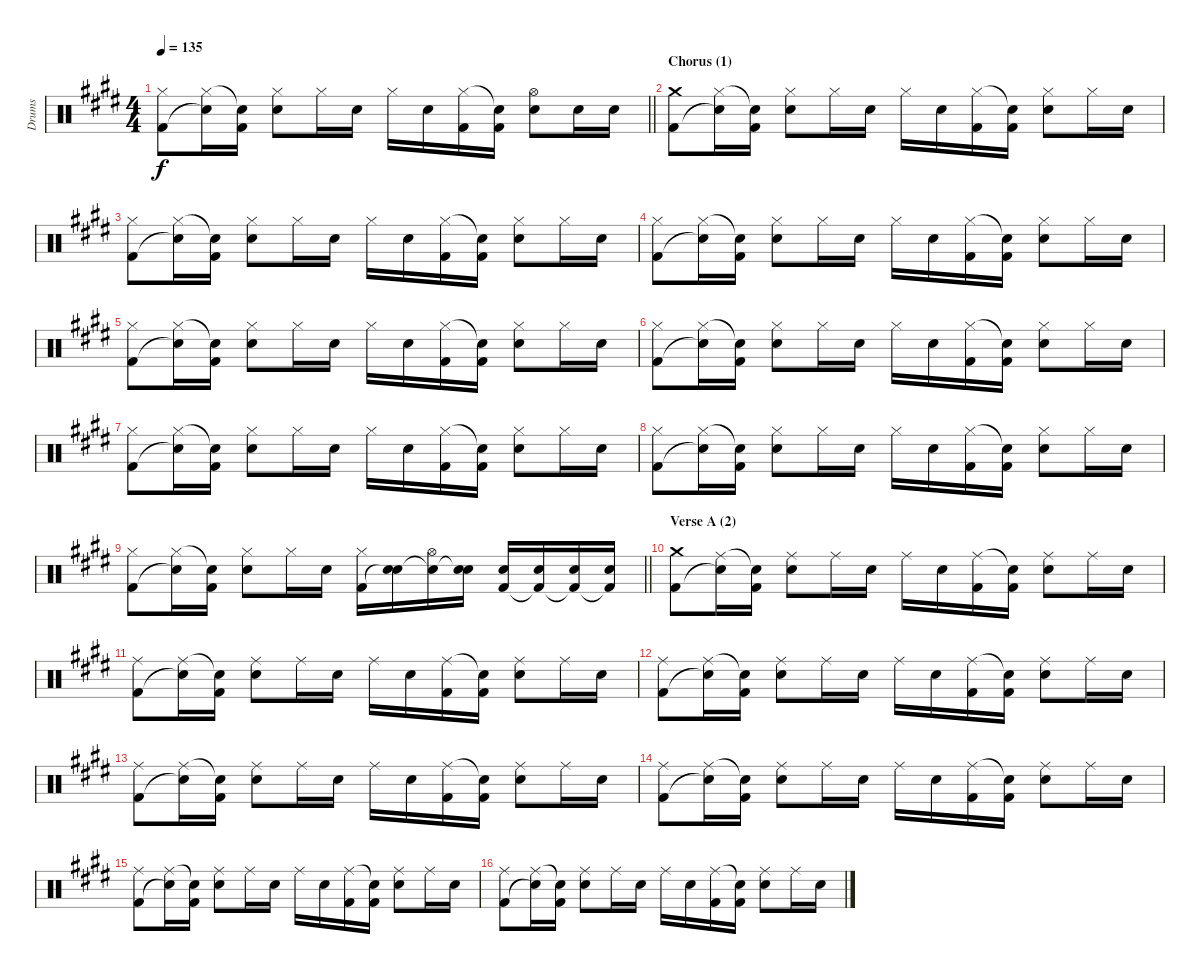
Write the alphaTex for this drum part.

\track ("Drums" "Drums") {instrument percussion}
\staff {score}
\articulation defaults
\ts (4 4)
\tempo 135
\clef neutral
\barLineRight lightlight
\ks c#minor
("Hi-Hat (closed)" "Kick (hit) 2").8{dy f} ("Hi-Hat (closed)" "Snare (hit)"{t}).16 ("Snare (hit)"{t} "Kick (hit) 2").16 ("Hi-Hat (closed)" "Electric Snare (hit)").8 "Hi-Hat (closed)".16 "Electric Snare (hit)".16 "Hi-Hat (closed)".16 "Electric Snare (hit)".16 ("Hi-Hat (closed)" "Kick (hit) 2").16 ("Snare (hit)"{t} "Kick (hit) 2").16 ("Hi-Hat (open)" "Electric Snare (hit)").8 "Electric Snare (hit)".16 "Electric Snare (hit)".16 |
\section ("" "Chorus (1)")
("Crash medium (hit)" "Kick (hit) 2").8 ("Hi-Hat (closed)" "Snare (hit)"{t}).16 ("Snare (hit)"{t} "Kick (hit) 2").16 ("Hi-Hat (closed)" "Electric Snare (hit)").8 "Hi-Hat (closed)".16 "Electric Snare (hit)".16 "Hi-Hat (closed)".16 "Electric Snare (hit)".16 ("Hi-Hat (closed)" "Kick (hit) 2").16 ("Snare (hit)"{t} "Kick (hit) 2").16 ("Hi-Hat (closed)" "Electric Snare (hit)").8 "Hi-Hat (closed)".16 "Electric Snare (hit)".16 |
("Hi-Hat (closed)" "Kick (hit) 2").8 ("Hi-Hat (closed)" "Snare (hit)"{t}).16 ("Snare (hit)"{t} "Kick (hit) 2").16 ("Hi-Hat (closed)" "Electric Snare (hit)").8 "Hi-Hat (closed)".16 "Electric Snare (hit)".16 "Hi-Hat (closed)".16 "Electric Snare (hit)".16 ("Hi-Hat (closed)" "Kick (hit) 2").16 ("Snare (hit)"{t} "Kick (hit) 2").16 ("Hi-Hat (closed)" "Electric Snare (hit)").8 "Hi-Hat (closed)".16 "Electric Snare (hit)".16 |
("Hi-Hat (closed)" "Kick (hit) 2").8 ("Hi-Hat (closed)" "Snare (hit)"{t}).16 ("Snare (hit)"{t} "Kick (hit) 2").16 ("Hi-Hat (closed)" "Electric Snare (hit)").8 "Hi-Hat (closed)".16 "Electric Snare (hit)".16 "Hi-Hat (closed)".16 "Electric Snare (hit)".16 ("Hi-Hat (closed)" "Kick (hit) 2").16 ("Snare (hit)"{t} "Kick (hit) 2").16 ("Hi-Hat (closed)" "Electric Snare (hit)").8 "Hi-Hat (closed)".16 "Electric Snare (hit)".16 |
("Hi-Hat (closed)" "Kick (hit) 2").8 ("Hi-Hat (closed)" "Snare (hit)"{t}).16 ("Snare (hit)"{t} "Kick (hit) 2").16 ("Hi-Hat (closed)" "Electric Snare (hit)").8 "Hi-Hat (closed)".16 "Electric Snare (hit)".16 "Hi-Hat (closed)".16 "Electric Snare (hit)".16 ("Hi-Hat (closed)" "Kick (hit) 2").16 ("Snare (hit)"{t} "Kick (hit) 2").16 ("Hi-Hat (closed)" "Electric Snare (hit)").8 "Hi-Hat (closed)".16 "Electric Snare (hit)".16 |
("Hi-Hat (closed)" "Kick (hit) 2").8 ("Hi-Hat (closed)" "Snare (hit)"{t}).16 ("Snare (hit)"{t} "Kick (hit) 2").16 ("Hi-Hat (closed)" "Electric Snare (hit)").8 "Hi-Hat (closed)".16 "Electric Snare (hit)".16 "Hi-Hat (closed)".16 "Electric Snare (hit)".16 ("Hi-Hat (closed)" "Kick (hit) 2").16 ("Snare (hit)"{t} "Kick (hit) 2").16 ("Hi-Hat (closed)" "Electric Snare (hit)").8 "Hi-Hat (closed)".16 "Electric Snare (hit)".16 |
("Hi-Hat (closed)" "Kick (hit) 2").8 ("Hi-Hat (closed)" "Snare (hit)"{t}).16 ("Snare (hit)"{t} "Kick (hit) 2").16 ("Hi-Hat (closed)" "Electric Snare (hit)").8 "Hi-Hat (closed)".16 "Electric Snare (hit)".16 "Hi-Hat (closed)".16 "Electric Snare (hit)".16 ("Hi-Hat (closed)" "Kick (hit) 2").16 ("Snare (hit)"{t} "Kick (hit) 2").16 ("Hi-Hat (closed)" "Electric Snare (hit)").8 "Hi-Hat (closed)".16 "Electric Snare (hit)".16 |
("Hi-Hat (closed)" "Kick (hit) 2").8 ("Hi-Hat (closed)" "Snare (hit)"{t}).16 ("Snare (hit)"{t} "Kick (hit) 2").16 ("Hi-Hat (closed)" "Electric Snare (hit)").8 "Hi-Hat (closed)".16 "Electric Snare (hit)".16 "Hi-Hat (closed)".16 "Electric Snare (hit)".16 ("Hi-Hat (closed)" "Kick (hit) 2").16 ("Snare (hit)"{t} "Kick (hit) 2").16 ("Hi-Hat (closed)" "Electric Snare (hit)").8 "Hi-Hat (closed)".16 "Electric Snare (hit)".16 |
\barLineRight lightlight
("Hi-Hat (closed)" "Kick (hit) 2").8 ("Hi-Hat (closed)" "Snare (hit)"{t}).16 ("Snare (hit)"{t} "Kick (hit) 2").16 ("Hi-Hat (closed)" "Electric Snare (hit)").8 "Hi-Hat (closed)".16 "Electric Snare (hit)".16 ("Hi-Hat (closed)" "Kick (hit) 2").16 ("Electric Snare (hit)" "Snare (hit)"{t}).16 ("Hi-Hat (open)" "Snare (hit)"{t}).16 ("Electric Snare (hit)" "Snare (hit)"{t}).16 ("Electric Snare (hit)" "Kick (hit) 2").16 ("Electric Snare (hit)" "Kick (hit) 2"{t}).16 ("Electric Snare (hit)" "Kick (hit) 2"{t}).16 ("Electric Snare (hit)" "Kick (hit) 2"{t}).16 |
\section ("" "Verse A (2)")
("Crash medium (hit)" "Kick (hit) 2").8 ("Ride (middle)" "Snare (hit)"{t}).16 ("Snare (hit)"{t} "Kick (hit) 2").16 ("Ride (middle)" "Electric Snare (hit)").8 "Ride (middle)".16 "Electric Snare (hit)".16 "Ride (middle)".16 "Electric Snare (hit)".16 ("Ride (middle)" "Kick (hit) 2").16 ("Snare (hit)"{t} "Kick (hit) 2").16 ("Ride (middle)" "Electric Snare (hit)").8 "Ride (middle)".16 "Electric Snare (hit)".16 |
("Ride (middle)" "Kick (hit) 2").8 ("Ride (middle)" "Snare (hit)"{t}).16 ("Snare (hit)"{t} "Kick (hit) 2").16 ("Ride (middle)" "Electric Snare (hit)").8 "Ride (middle)".16 "Electric Snare (hit)".16 "Ride (middle)".16 "Electric Snare (hit)".16 ("Ride (middle)" "Kick (hit) 2").16 ("Snare (hit)"{t} "Kick (hit) 2").16 ("Ride (middle)" "Electric Snare (hit)").8 "Ride (middle)".16 "Electric Snare (hit)".16 |
("Ride (middle)" "Kick (hit) 2").8 ("Ride (middle)" "Snare (hit)"{t}).16 ("Snare (hit)"{t} "Kick (hit) 2").16 ("Ride (middle)" "Electric Snare (hit)").8 "Ride (middle)".16 "Electric Snare (hit)".16 "Ride (middle)".16 "Electric Snare (hit)".16 ("Ride (middle)" "Kick (hit) 2").16 ("Snare (hit)"{t} "Kick (hit) 2").16 ("Ride (middle)" "Electric Snare (hit)").8 "Ride (middle)".16 "Electric Snare (hit)".16 |
("Ride (middle)" "Kick (hit) 2").8 ("Ride (middle)" "Snare (hit)"{t}).16 ("Snare (hit)"{t} "Kick (hit) 2").16 ("Ride (middle)" "Electric Snare (hit)").8 "Ride (middle)".16 "Electric Snare (hit)".16 "Ride (middle)".16 "Electric Snare (hit)".16 ("Ride (middle)" "Kick (hit) 2").16 ("Snare (hit)"{t} "Kick (hit) 2").16 ("Ride (middle)" "Electric Snare (hit)").8 "Ride (middle)".16 "Electric Snare (hit)".16 |
("Ride (middle)" "Kick (hit) 2").8 ("Ride (middle)" "Snare (hit)"{t}).16 ("Snare (hit)"{t} "Kick (hit) 2").16 ("Ride (middle)" "Electric Snare (hit)").8 "Ride (middle)".16 "Electric Snare (hit)".16 "Ride (middle)".16 "Electric Snare (hit)".16 ("Ride (middle)" "Kick (hit) 2").16 ("Snare (hit)"{t} "Kick (hit) 2").16 ("Ride (middle)" "Electric Snare (hit)").8 "Ride (middle)".16 "Electric Snare (hit)".16 |
("Ride (middle)" "Kick (hit) 2").8 ("Ride (middle)" "Snare (hit)"{t}).16 ("Snare (hit)"{t} "Kick (hit) 2").16 ("Ride (middle)" "Electric Snare (hit)").8 "Ride (middle)".16 "Electric Snare (hit)".16 "Ride (middle)".16 "Electric Snare (hit)".16 ("Ride (middle)" "Kick (hit) 2").16 ("Snare (hit)"{t} "Kick (hit) 2").16 ("Ride (middle)" "Electric Snare (hit)").8 "Ride (middle)".16 "Electric Snare (hit)".16 |
("Ride (middle)" "Kick (hit) 2").8 ("Ride (middle)" "Snare (hit)"{t}).16 ("Snare (hit)"{t} "Kick (hit) 2").16 ("Ride (middle)" "Electric Snare (hit)").8 "Ride (middle)".16 "Electric Snare (hit)".16 "Ride (middle)".16 "Electric Snare (hit)".16 ("Ride (middle)" "Kick (hit) 2").16 ("Snare (hit)"{t} "Kick (hit) 2").16 ("Ride (middle)" "Electric Snare (hit)").8 "Ride (middle)".16 "Electric Snare (hit)".16
